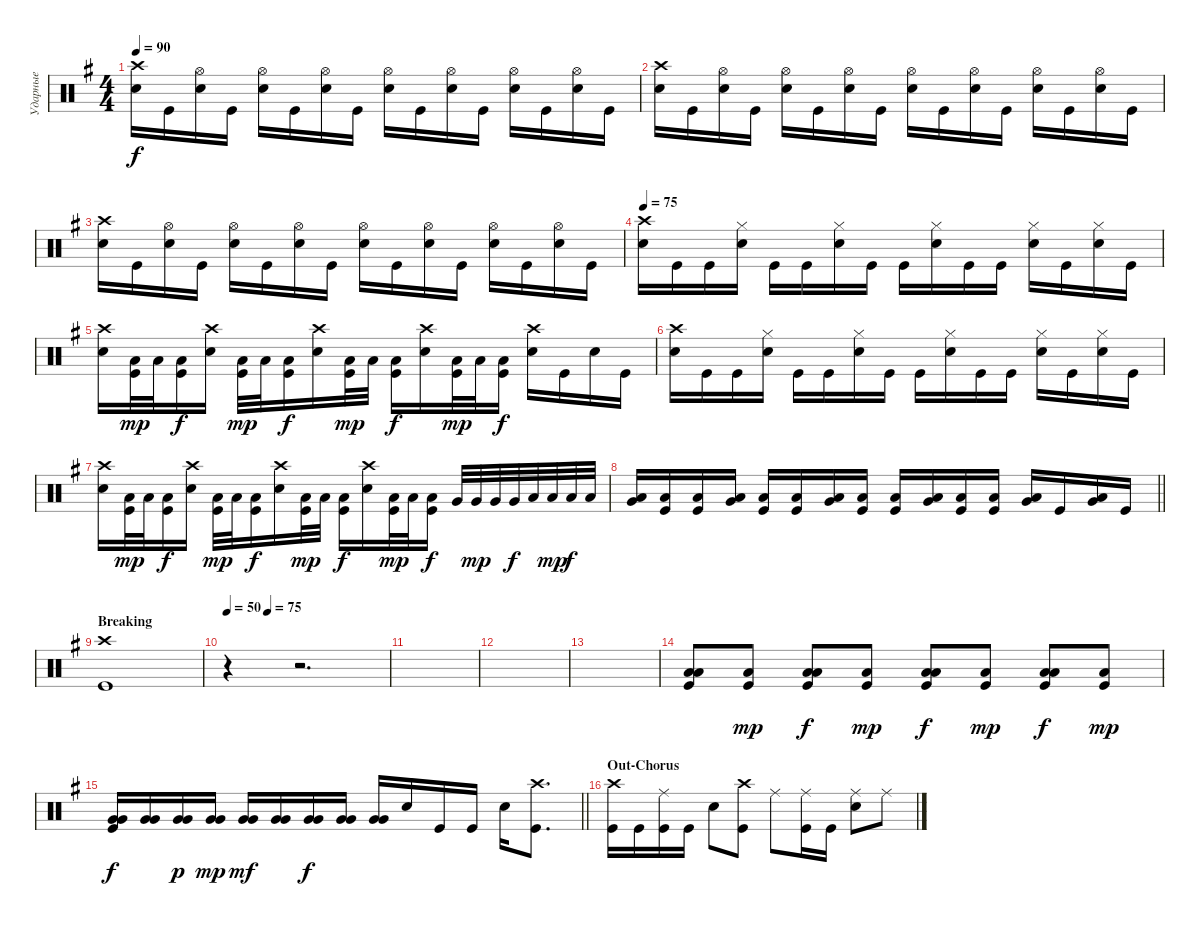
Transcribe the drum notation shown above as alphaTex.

\track ("Ударные" "Ударные") {instrument percussion}
\staff {score}
\articulation defaults
\ts (4 4)
\tempo 90
\clef neutral
\ks eminor
("Snare (hit) 2" "Crash high (hit)").16{dy f} "Kick (hit)".16 ("Snare (hit) 2" "Hi-Hat (open)").16 "Kick (hit)".16 ("Snare (hit) 2" "Hi-Hat (open)").16 "Kick (hit)".16 ("Snare (hit) 2" "Hi-Hat (open)").16 "Kick (hit)".16 ("Snare (hit) 2" "Hi-Hat (open)").16 "Kick (hit)".16 ("Snare (hit) 2" "Hi-Hat (open)").16 "Kick (hit)".16 ("Snare (hit) 2" "Hi-Hat (open)").16 "Kick (hit)".16 ("Snare (hit) 2" "Hi-Hat (open)").16 "Kick (hit)".16 |
("Snare (hit) 2" "Crash high (hit)").16 "Kick (hit)".16 ("Snare (hit) 2" "Hi-Hat (open)").16 "Kick (hit)".16 ("Snare (hit) 2" "Hi-Hat (open)").16 "Kick (hit)".16 ("Snare (hit) 2" "Hi-Hat (open)").16 "Kick (hit)".16 ("Snare (hit) 2" "Hi-Hat (open)").16 "Kick (hit)".16 ("Snare (hit) 2" "Hi-Hat (open)").16 "Kick (hit)".16 ("Snare (hit) 2" "Hi-Hat (open)").16 "Kick (hit)".16 ("Snare (hit) 2" "Hi-Hat (open)").16 "Kick (hit)".16 |
("Snare (hit) 2" "Crash high (hit)").16 "Kick (hit)".16 ("Snare (hit) 2" "Hi-Hat (open)").16 "Kick (hit)".16 ("Snare (hit) 2" "Hi-Hat (open)").16 "Kick (hit)".16 ("Snare (hit) 2" "Hi-Hat (open)").16 "Kick (hit)".16 ("Snare (hit) 2" "Hi-Hat (open)").16 "Kick (hit)".16 ("Snare (hit) 2" "Hi-Hat (open)").16 "Kick (hit)".16 ("Snare (hit) 2" "Hi-Hat (open)").16 "Kick (hit)".16 ("Snare (hit) 2" "Hi-Hat (open)").16 "Kick (hit)".16 |
\tempo 75
("Snare (hit) 2" "Crash high (hit)").16 "Kick (hit)".16 "Kick (hit)".16 ("Snare (hit) 2" "Hi-Hat (closed)").16 "Kick (hit)".16 "Kick (hit)".16 ("Snare (hit) 2" "Hi-Hat (closed)").16 "Kick (hit)".16 "Kick (hit)".16 ("Snare (hit) 2" "Hi-Hat (closed)").16 "Kick (hit)".16 "Kick (hit)".16 ("Snare (hit) 2" "Hi-Hat (closed)").16 "Kick (hit)".16 ("Snare (hit) 2" "Hi-Hat (closed)").16 "Kick (hit)".16 |
("Snare (hit) 2" "Crash high (hit)").16 ("Low Tom (hit)" "Kick (hit)").32{dy mp} "Low Tom (hit)".32 ("Low Tom (hit)" "Kick (hit)").16{dy f} ("Snare (hit) 2" "Crash high (hit)").16 ("Low Tom (hit)" "Kick (hit)").32{dy mp} "Low Tom (hit)".32 ("Low Tom (hit)" "Kick (hit)").16{dy f} ("Snare (hit) 2" "Crash high (hit)").16 ("Low Tom (hit)" "Kick (hit)").32{dy mp} "Low Tom (hit)".32 ("Low Tom (hit)" "Kick (hit)").16{dy f} ("Snare (hit) 2" "Crash high (hit)").16 ("Low Tom (hit)" "Kick (hit)").32{dy mp} "Low Tom (hit)".32 ("Low Tom (hit)" "Kick (hit)").16{dy f} ("Snare (hit) 2" "Crash high (hit)").16 "Kick (hit)".16 "Snare (hit) 2".16 "Kick (hit)".16 |
("Snare (hit) 2" "Crash high (hit)").16 "Kick (hit)".16 "Kick (hit)".16 ("Snare (hit) 2" "Hi-Hat (closed)").16 "Kick (hit)".16 "Kick (hit)".16 ("Snare (hit) 2" "Hi-Hat (closed)").16 "Kick (hit)".16 "Kick (hit)".16 ("Snare (hit) 2" "Hi-Hat (closed)").16 "Kick (hit)".16 "Kick (hit)".16 ("Snare (hit) 2" "Hi-Hat (closed)").16 "Kick (hit)".16 ("Snare (hit) 2" "Hi-Hat (closed)").16 "Kick (hit)".16 |
("Snare (hit) 2" "Crash high (hit)").16 ("Low Tom (hit)" "Kick (hit)").32{dy mp} "Low Tom (hit)".32 ("Low Tom (hit)" "Kick (hit)").16{dy f} ("Snare (hit) 2" "Crash high (hit)").16 ("Low Tom (hit)" "Kick (hit)").32{dy mp} "Low Tom (hit)".32 ("Low Tom (hit)" "Kick (hit)").16{dy f} ("Snare (hit) 2" "Crash high (hit)").16 ("Low Tom (hit)" "Kick (hit)").32{dy mp} "Low Tom (hit)".32 ("Low Tom (hit)" "Kick (hit)").16{dy f} ("Snare (hit) 2" "Crash high (hit)").16 ("Low Tom (hit)" "Kick (hit)").32{dy mp} "Low Tom (hit)".32 ("Low Tom (hit)" "Kick (hit)").16{dy f} "Very Low Tom (hit)".32 "Very Low Tom (hit)".32{dy mp} "Very Low Tom (hit)".32 "Very Low Tom (hit)".32{dy f} "Low Floor Tom (hit)".32 "Low Floor Tom (hit)".32{dy mp} "Low Floor Tom (hit)".32{dy f} "Low Floor Tom (hit)".32 |
\barLineRight lightlight
("Low Floor Tom (hit)" "Very Low Tom (hit)").16{bd 60} ("Kick (hit)" "Low Floor Tom (hit)").16{bd 60} ("Kick (hit)" "Low Floor Tom (hit)").16{bd 60} ("Low Floor Tom (hit)" "Very Low Tom (hit)").16{bd 60} ("Kick (hit)" "Low Floor Tom (hit)").16{bd 60} ("Kick (hit)" "Low Floor Tom (hit)").16{bd 60} ("Low Floor Tom (hit)" "Very Low Tom (hit)").16{bd 60} ("Kick (hit)" "Low Floor Tom (hit)").16{bd 60} ("Kick (hit)" "Low Floor Tom (hit)").16{bd 60} ("Low Floor Tom (hit)" "Very Low Tom (hit)").16{bd 60} ("Kick (hit)" "Low Floor Tom (hit)").16{bd 60} ("Kick (hit)" "Low Floor Tom (hit)").16{bd 60} ("Very Low Tom (hit)" "Low Floor Tom (hit)").16{bd 60} "Kick (hit)".16 ("Very Low Tom (hit)" "Low Floor Tom (hit)").16{bd 60} "Kick (hit)".16 |
\section ("" "Breaking")
("Kick (hit)" "Crash high (hit)").1 |
\tempo 50
\tempo (75 0.25)
r.4 r.2{d} |
|
|
|
("Kick (hit)" "Low Tom (hit)" "Low Tom (hit)").8{bd 120} ("Kick (hit)" "Low Tom (hit)").8{dy mp} ("Kick (hit)" "Low Tom (hit)" "Low Tom (hit)").8{bd 60 dy f} ("Kick (hit)" "Low Tom (hit)").8{dy mp} ("Kick (hit)" "Low Tom (hit)" "Low Tom (hit)").8{bd 60 dy f} ("Kick (hit)" "Low Tom (hit)").8{dy mp} ("Kick (hit)" "Low Tom (hit)" "Low Tom (hit)").8{bd 60 dy f} ("Kick (hit)" "Low Tom (hit)").8{dy mp} |
\barLineRight lightlight
("Kick (hit)" "Very Low Tom (hit)" "Very Low Tom (hit)").16{bd 60 dy f} ("Very Low Tom (hit)" "Very Low Tom (hit)").16{bd 120} ("Very Low Tom (hit)" "Very Low Tom (hit)").16{bd 60 dy p} ("Very Low Tom (hit)" "Very Low Tom (hit)").16{bd 60 dy mp} ("Very Low Tom (hit)" "Very Low Tom (hit)").16{bd 60 dy mf} ("Very Low Tom (hit)" "Very Low Tom (hit)").16{bd 60} ("Very Low Tom (hit)" "Very Low Tom (hit)").16{bd 60 dy f} ("Very Low Tom (hit)" "Very Low Tom (hit)").16{bd 60} ("Very Low Tom (hit)" "Very Low Tom (hit)").16{bd 60} "Snare (hit) 2".16 "Kick (hit)".16 "Kick (hit)".16 "Snare (hit) 2".16 ("Kick (hit)" "Crash high (hit)").8{d} |
\section ("" "Out-Chorus")
("Kick (hit)" "Crash high (hit)").16 "Kick (hit)".16 ("Kick (hit)" "Ride (middle)").16 "Kick (hit)".16 "Snare (hit) 2".8 ("Kick (hit)" "Crash high (hit)").8 "Ride (middle)".8 ("Kick (hit)" "Ride (middle)").16 "Kick (hit)".16 ("Snare (hit) 2" "Ride (middle)").8 "Ride (middle)".8
